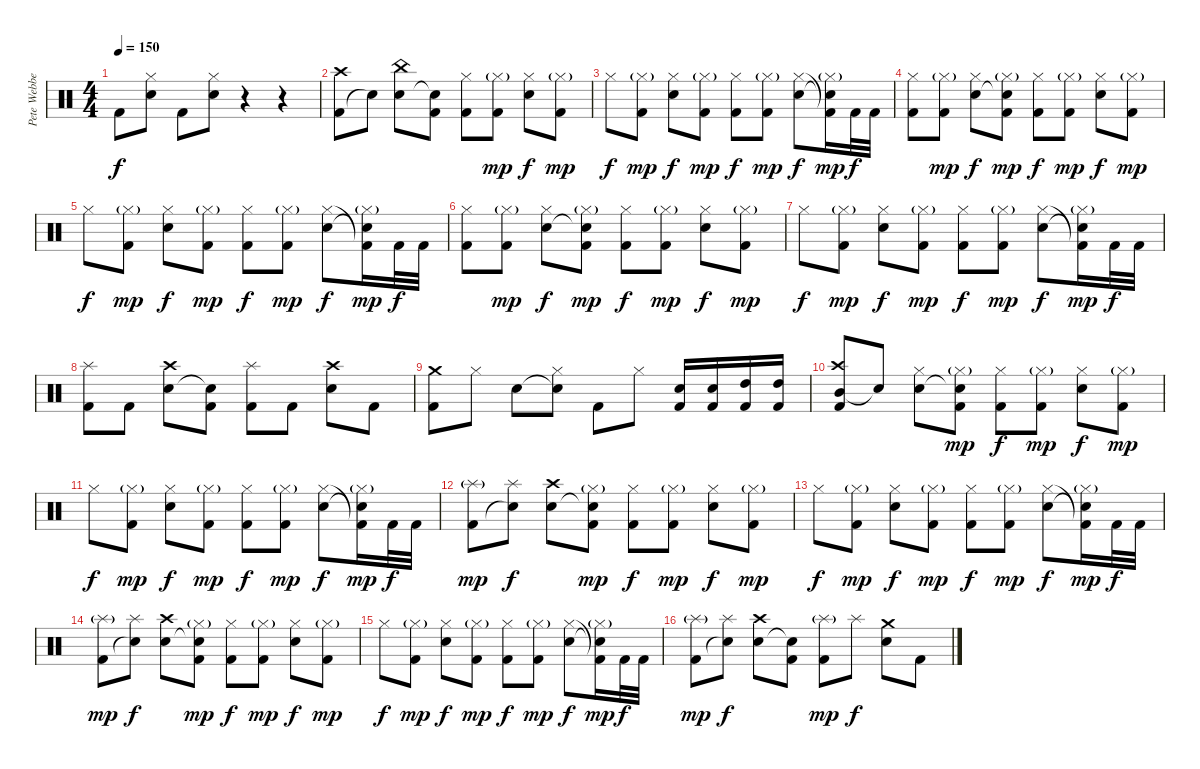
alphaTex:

\track ("Pete Webber" "Pete Webbe") {instrument percussion}
\staff {score}
\articulation defaults
\ts (4 4)
\tempo 150
\clef neutral
\ks c "Kick (hit) 2".8{dy f}
("Hi-Hat (closed)" "Electric Snare (hit)").8 "Kick (hit) 2".8 ("Hi-Hat (closed)" "Electric Snare (hit)").8 r.4 r.4 |
("Kick (hit) 2" "Crash high (hit)").8 "Snare (hit)"{t}.8 ("Electric Snare (hit)" "China (hit)").8 ("Snare (hit)"{t} "Kick (hit) 2").8 ("Kick (hit) 2" "Hi-Hat (closed)").8 ("Kick (hit) 2" "Hi-Hat (closed)"{g}).8{dy mp} ("Electric Snare (hit)" "Hi-Hat (closed)").8{dy f} ("Kick (hit) 2" "Hi-Hat (closed)"{g}).8{dy mp} |
"Hi-Hat (closed)".8{dy f} ("Kick (hit) 2" "Hi-Hat (closed)"{g}).8{dy mp} ("Electric Snare (hit)" "Hi-Hat (closed)").8{dy f} ("Kick (hit) 2" "Hi-Hat (closed)"{g}).8{dy mp} ("Kick (hit) 2" "Hi-Hat (closed)").8{dy f} ("Kick (hit) 2" "Hi-Hat (closed)"{g}).8{dy mp} ("Electric Snare (hit)" "Hi-Hat (closed)").8{dy f} ("Snare (hit)"{t} "Kick (hit) 2"{t} "Hi-Hat (closed)"{g}).16{dy mp} "Kick (hit) 2".32{dy f} "Kick (hit) 2".32 |
("Kick (hit) 2" "Hi-Hat (closed)").8 ("Kick (hit) 2" "Hi-Hat (closed)"{g}).8{dy mp} ("Electric Snare (hit)" "Hi-Hat (closed)").8{dy f} ("Snare (hit)"{t} "Kick (hit) 2" "Hi-Hat (closed)"{g}).8{dy mp} ("Kick (hit) 2" "Hi-Hat (closed)").8{dy f} ("Kick (hit) 2" "Hi-Hat (closed)"{g}).8{dy mp} ("Electric Snare (hit)" "Hi-Hat (closed)").8{dy f} ("Kick (hit) 2" "Hi-Hat (closed)"{g}).8{dy mp} |
"Hi-Hat (closed)".8{dy f} ("Kick (hit) 2" "Hi-Hat (closed)"{g}).8{dy mp} ("Electric Snare (hit)" "Hi-Hat (closed)").8{dy f} ("Kick (hit) 2" "Hi-Hat (closed)"{g}).8{dy mp} ("Kick (hit) 2" "Hi-Hat (closed)").8{dy f} ("Kick (hit) 2" "Hi-Hat (closed)"{g}).8{dy mp} ("Electric Snare (hit)" "Hi-Hat (closed)").8{dy f} ("Snare (hit)"{t} "Kick (hit) 2"{t} "Hi-Hat (closed)"{g}).16{dy mp} "Kick (hit) 2".32{dy f} "Kick (hit) 2".32 |
("Kick (hit) 2" "Hi-Hat (closed)").8 ("Kick (hit) 2" "Hi-Hat (closed)"{g}).8{dy mp} ("Electric Snare (hit)" "Hi-Hat (closed)").8{dy f} ("Snare (hit)"{t} "Kick (hit) 2" "Hi-Hat (closed)"{g}).8{dy mp} ("Kick (hit) 2" "Hi-Hat (closed)").8{dy f} ("Kick (hit) 2" "Hi-Hat (closed)"{g}).8{dy mp} ("Electric Snare (hit)" "Hi-Hat (closed)").8{dy f} ("Kick (hit) 2" "Hi-Hat (closed)"{g}).8{dy mp} |
"Hi-Hat (closed)".8{dy f} ("Kick (hit) 2" "Hi-Hat (closed)"{g}).8{dy mp} ("Electric Snare (hit)" "Hi-Hat (closed)").8{dy f} ("Kick (hit) 2" "Hi-Hat (closed)"{g}).8{dy mp} ("Kick (hit) 2" "Hi-Hat (closed)").8{dy f} ("Kick (hit) 2" "Hi-Hat (closed)"{g}).8{dy mp} ("Electric Snare (hit)" "Hi-Hat (closed)").8{dy f} ("Snare (hit)"{t} "Kick (hit) 2"{t} "Hi-Hat (closed)"{g}).16{dy mp} "Kick (hit) 2".32{dy f} "Kick (hit) 2".32 |
("Kick (hit) 2" "Splash (hit)").8 "Kick (hit) 2".8 ("Electric Snare (hit)" "Crash high (hit)").8 ("Snare (hit)"{t} "Kick (hit) 2").8 ("Kick (hit) 2" "Splash (hit)").8 "Kick (hit) 2".8 ("Electric Snare (hit)" "Crash high (hit)").8 "Kick (hit) 2".8 |
("Kick (hit) 2" "Crash medium (hit)").8 "Hi-Hat (closed)".8 "Electric Snare (hit)".8 ("Snare (hit)"{t} "Hi-Hat (closed)").8 "Kick (hit) 2".8 "Hi-Hat (closed)".8 ("Electric Snare (hit)" "Kick (hit) 2").16 ("Electric Snare (hit)" "Kick (hit) 2").16 ("High Tom (hit)" "Kick (hit) 2").16 ("High Tom (hit)" "Kick (hit) 2").16 |
("Mid Tom (hit)" "Kick (hit) 2" "Crash high (hit)").8 "Snare (hit)"{t}.8 ("Electric Snare (hit)" "Hi-Hat (closed)").8 ("Snare (hit)"{t} "Kick (hit) 2" "Hi-Hat (closed)"{g}).8{dy mp} ("Kick (hit) 2" "Hi-Hat (closed)").8{dy f} ("Kick (hit) 2" "Hi-Hat (closed)"{g}).8{dy mp} ("Electric Snare (hit)" "Hi-Hat (closed)").8{dy f} ("Kick (hit) 2" "Hi-Hat (closed)"{g}).8{dy mp} |
"Hi-Hat (closed)".8{dy f} ("Kick (hit) 2" "Hi-Hat (closed)"{g}).8{dy mp} ("Electric Snare (hit)" "Hi-Hat (closed)").8{dy f} ("Kick (hit) 2" "Hi-Hat (closed)"{g}).8{dy mp} ("Kick (hit) 2" "Hi-Hat (closed)").8{dy f} ("Kick (hit) 2" "Hi-Hat (closed)"{g}).8{dy mp} ("Electric Snare (hit)" "Hi-Hat (closed)").8{dy f} ("Snare (hit)"{t} "Kick (hit) 2"{t} "Hi-Hat (closed)"{g}).16{dy mp} "Kick (hit) 2".32{dy f} "Kick (hit) 2".32 |
("Kick (hit) 2" "Splash (hit)"{g}).8{dy mp} ("Snare (hit)"{t} "Splash (hit)").8{dy f} ("Electric Snare (hit)" "Crash high (hit)").8 ("Snare (hit)"{t} "Kick (hit) 2" "Hi-Hat (closed)"{g}).8{dy mp} ("Kick (hit) 2" "Hi-Hat (closed)").8{dy f} ("Kick (hit) 2" "Hi-Hat (closed)"{g}).8{dy mp} ("Electric Snare (hit)" "Hi-Hat (closed)").8{dy f} ("Kick (hit) 2" "Hi-Hat (closed)"{g}).8{dy mp} |
"Hi-Hat (closed)".8{dy f} ("Kick (hit) 2" "Hi-Hat (closed)"{g}).8{dy mp} ("Electric Snare (hit)" "Hi-Hat (closed)").8{dy f} ("Kick (hit) 2" "Hi-Hat (closed)"{g}).8{dy mp} ("Kick (hit) 2" "Hi-Hat (closed)").8{dy f} ("Kick (hit) 2" "Hi-Hat (closed)"{g}).8{dy mp} ("Electric Snare (hit)" "Hi-Hat (closed)").8{dy f} ("Snare (hit)"{t} "Kick (hit) 2"{t} "Hi-Hat (closed)"{g}).16{dy mp} "Kick (hit) 2".32{dy f} "Kick (hit) 2".32 |
("Kick (hit) 2" "Splash (hit)"{g}).8{dy mp} ("Snare (hit)"{t} "Splash (hit)").8{dy f} ("Electric Snare (hit)" "Crash high (hit)").8 ("Snare (hit)"{t} "Kick (hit) 2" "Hi-Hat (closed)"{g}).8{dy mp} ("Kick (hit) 2" "Hi-Hat (closed)").8{dy f} ("Kick (hit) 2" "Hi-Hat (closed)"{g}).8{dy mp} ("Electric Snare (hit)" "Hi-Hat (closed)").8{dy f} ("Kick (hit) 2" "Hi-Hat (closed)"{g}).8{dy mp} |
"Hi-Hat (closed)".8{dy f} ("Kick (hit) 2" "Hi-Hat (closed)"{g}).8{dy mp} ("Electric Snare (hit)" "Hi-Hat (closed)").8{dy f} ("Kick (hit) 2" "Hi-Hat (closed)"{g}).8{dy mp} ("Kick (hit) 2" "Hi-Hat (closed)").8{dy f} ("Kick (hit) 2" "Hi-Hat (closed)"{g}).8{dy mp} ("Electric Snare (hit)" "Hi-Hat (closed)").8{dy f} ("Snare (hit)"{t} "Kick (hit) 2"{t} "Hi-Hat (closed)"{g}).16{dy mp} "Kick (hit) 2".32{dy f} "Kick (hit) 2".32 |
("Kick (hit) 2" "Splash (hit)"{g}).8{dy mp} ("Snare (hit)"{t} "Splash (hit)").8{dy f} ("Electric Snare (hit)" "Crash high (hit)").8 ("Snare (hit)"{t} "Kick (hit) 2").8 ("Kick (hit) 2" "Splash (hit)"{g}).8{dy mp} "Splash (hit)".8{dy f} ("Electric Snare (hit)" "Crash medium (hit)").8 "Kick (hit) 2".8
